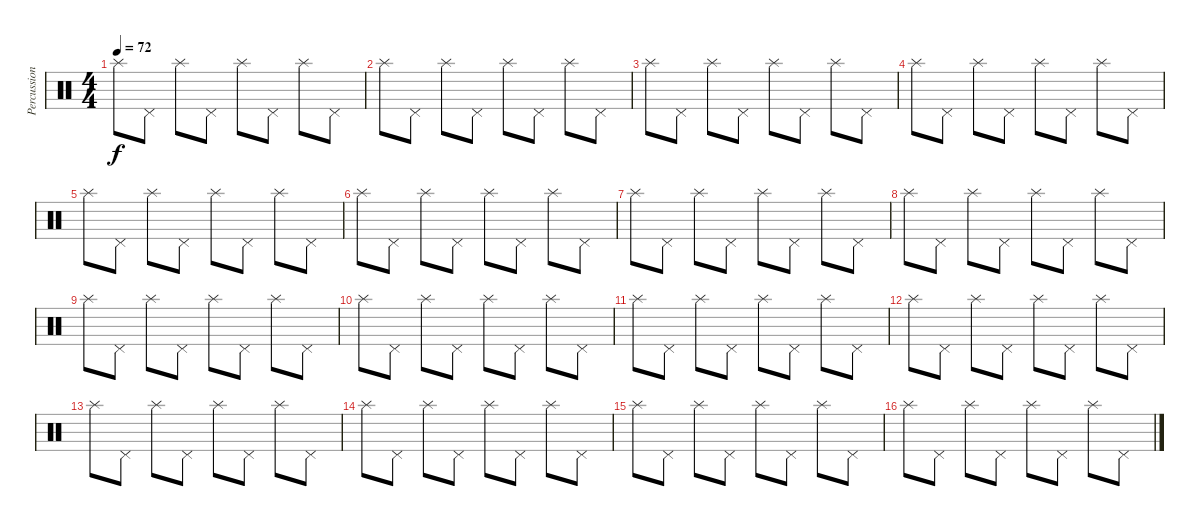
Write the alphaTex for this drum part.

\track ("Percussion" "Percussion") {instrument percussion}
\staff {score}
\articulation defaults
\ts (4 4)
\tempo 72
\clef neutral
\ks c "Splash (hit)".8{dy f} "Pedal Hi-Hat (hit)".8 "Splash (hit)".8 "Pedal Hi-Hat (hit)".8 "Splash (hit)".8 "Pedal Hi-Hat (hit)".8 "Splash (hit)".8 "Pedal Hi-Hat (hit)".8
|
"Splash (hit)".8 "Pedal Hi-Hat (hit)".8 "Splash (hit)".8 "Pedal Hi-Hat (hit)".8 "Splash (hit)".8 "Pedal Hi-Hat (hit)".8 "Splash (hit)".8 "Pedal Hi-Hat (hit)".8 |
"Splash (hit)".8 "Pedal Hi-Hat (hit)".8 "Splash (hit)".8 "Pedal Hi-Hat (hit)".8 "Splash (hit)".8 "Pedal Hi-Hat (hit)".8 "Splash (hit)".8 "Pedal Hi-Hat (hit)".8 |
"Splash (hit)".8 "Pedal Hi-Hat (hit)".8 "Splash (hit)".8 "Pedal Hi-Hat (hit)".8 "Splash (hit)".8 "Pedal Hi-Hat (hit)".8 "Splash (hit)".8 "Pedal Hi-Hat (hit)".8 |
"Splash (hit)".8 "Pedal Hi-Hat (hit)".8 "Splash (hit)".8 "Pedal Hi-Hat (hit)".8 "Splash (hit)".8 "Pedal Hi-Hat (hit)".8 "Splash (hit)".8 "Pedal Hi-Hat (hit)".8 |
"Splash (hit)".8 "Pedal Hi-Hat (hit)".8 "Splash (hit)".8 "Pedal Hi-Hat (hit)".8 "Splash (hit)".8 "Pedal Hi-Hat (hit)".8 "Splash (hit)".8 "Pedal Hi-Hat (hit)".8 |
"Splash (hit)".8 "Pedal Hi-Hat (hit)".8 "Splash (hit)".8 "Pedal Hi-Hat (hit)".8 "Splash (hit)".8 "Pedal Hi-Hat (hit)".8 "Splash (hit)".8 "Pedal Hi-Hat (hit)".8 |
"Splash (hit)".8 "Pedal Hi-Hat (hit)".8 "Splash (hit)".8 "Pedal Hi-Hat (hit)".8 "Splash (hit)".8 "Pedal Hi-Hat (hit)".8 "Splash (hit)".8 "Pedal Hi-Hat (hit)".8 |
"Splash (hit)".8 "Pedal Hi-Hat (hit)".8 "Splash (hit)".8 "Pedal Hi-Hat (hit)".8 "Splash (hit)".8 "Pedal Hi-Hat (hit)".8 "Splash (hit)".8 "Pedal Hi-Hat (hit)".8 |
"Splash (hit)".8 "Pedal Hi-Hat (hit)".8 "Splash (hit)".8 "Pedal Hi-Hat (hit)".8 "Splash (hit)".8 "Pedal Hi-Hat (hit)".8 "Splash (hit)".8 "Pedal Hi-Hat (hit)".8 |
"Splash (hit)".8 "Pedal Hi-Hat (hit)".8 "Splash (hit)".8 "Pedal Hi-Hat (hit)".8 "Splash (hit)".8 "Pedal Hi-Hat (hit)".8 "Splash (hit)".8 "Pedal Hi-Hat (hit)".8 |
"Splash (hit)".8 "Pedal Hi-Hat (hit)".8 "Splash (hit)".8 "Pedal Hi-Hat (hit)".8 "Splash (hit)".8 "Pedal Hi-Hat (hit)".8 "Splash (hit)".8 "Pedal Hi-Hat (hit)".8 |
"Splash (hit)".8 "Pedal Hi-Hat (hit)".8 "Splash (hit)".8 "Pedal Hi-Hat (hit)".8 "Splash (hit)".8 "Pedal Hi-Hat (hit)".8 "Splash (hit)".8 "Pedal Hi-Hat (hit)".8 |
"Splash (hit)".8 "Pedal Hi-Hat (hit)".8 "Splash (hit)".8 "Pedal Hi-Hat (hit)".8 "Splash (hit)".8 "Pedal Hi-Hat (hit)".8 "Splash (hit)".8 "Pedal Hi-Hat (hit)".8 |
"Splash (hit)".8 "Pedal Hi-Hat (hit)".8 "Splash (hit)".8 "Pedal Hi-Hat (hit)".8 "Splash (hit)".8 "Pedal Hi-Hat (hit)".8 "Splash (hit)".8 "Pedal Hi-Hat (hit)".8 |
"Splash (hit)".8 "Pedal Hi-Hat (hit)".8 "Splash (hit)".8 "Pedal Hi-Hat (hit)".8 "Splash (hit)".8 "Pedal Hi-Hat (hit)".8 "Splash (hit)".8 "Pedal Hi-Hat (hit)".8
